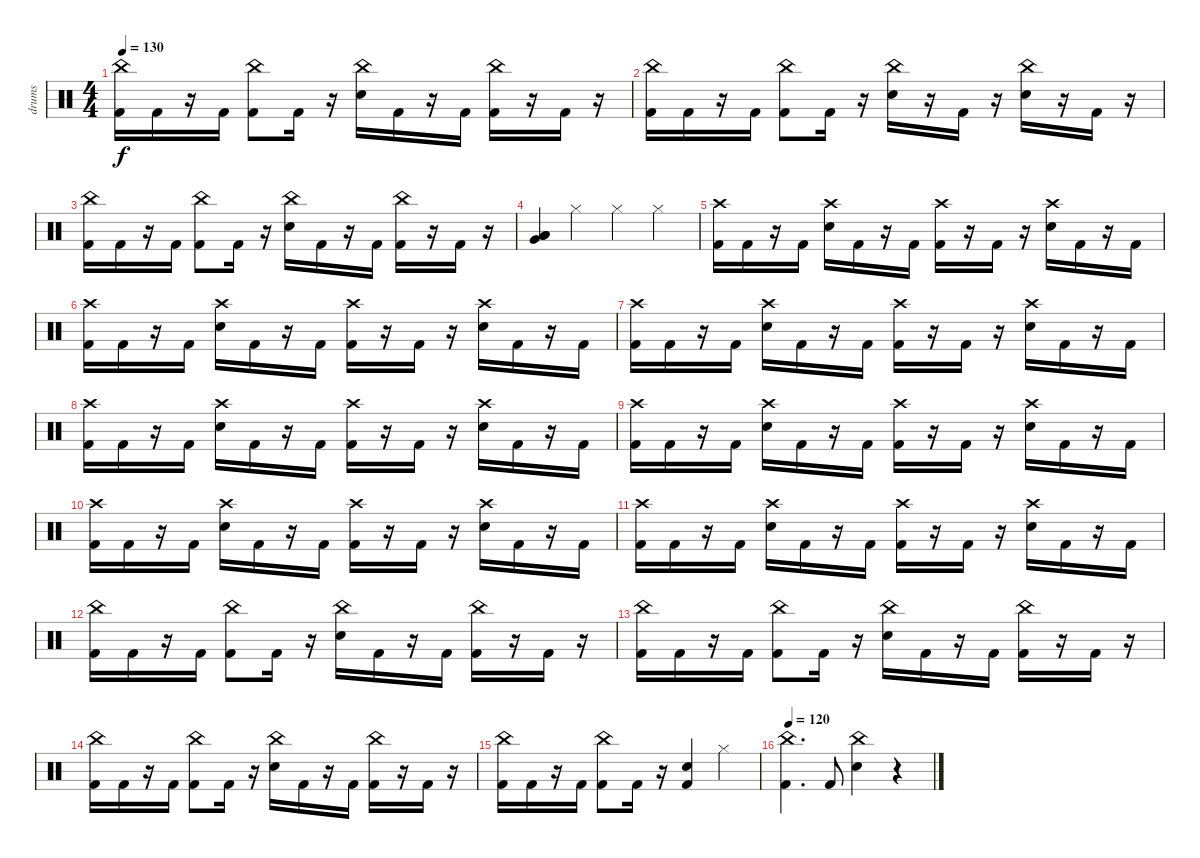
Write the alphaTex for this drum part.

\track ("drums" "drums") {instrument percussion}
\staff {score}
\articulation defaults
\ts (4 4)
\tempo 130
\clef neutral
\ks c
("China (hit)" "Kick (hit) 2").16{dy f} "Kick (hit) 2".16 r.16 "Kick (hit) 2".16 ("China (hit)" "Kick (hit) 2").8 "Kick (hit) 2".16 r.16 ("China (hit)" "Electric Snare (hit)").16 "Kick (hit) 2".16 r.16 "Kick (hit) 2".16 ("China (hit)" "Kick (hit) 2").16 r.16 "Kick (hit) 2".16 r.16 |
("China (hit)" "Kick (hit) 2").16 "Kick (hit) 2".16 r.16 "Kick (hit) 2".16 ("China (hit)" "Kick (hit) 2").8 "Kick (hit) 2".16 r.16 ("China (hit)" "Electric Snare (hit)").16 r.16 "Kick (hit) 2".16 r.16 ("China (hit)" "Electric Snare (hit)").16 r.16 "Kick (hit) 2".16 r.16 |
("China (hit)" "Kick (hit) 2").16 "Kick (hit) 2".16 r.16 "Kick (hit) 2".16 ("China (hit)" "Kick (hit) 2").8 "Kick (hit) 2".16 r.16 ("China (hit)" "Electric Snare (hit)").16 "Kick (hit) 2".16 r.16 "Kick (hit) 2".16 ("China (hit)" "Kick (hit) 2").16 r.16 "Kick (hit) 2".16 r.16 |
("Low Tom (hit)" "Very Low Tom (hit)" "Low Floor Tom (hit)").4 "Hi-Hat (closed)".4 "Hi-Hat (closed)".4 "Hi-Hat (closed)".4 |
("Crash high (hit)" "Kick (hit) 2").16 "Kick (hit) 2".16 r.16 "Kick (hit) 2".16 ("Crash high (hit)" "Electric Snare (hit)").16 "Kick (hit) 2".16 r.16 "Kick (hit) 2".16 ("Crash high (hit)" "Kick (hit) 2").16 r.16 "Kick (hit) 2".16 r.16 ("Crash high (hit)" "Electric Snare (hit)").16 "Kick (hit) 2".16 r.16 "Kick (hit) 2".16 |
("Crash high (hit)" "Kick (hit) 2").16 "Kick (hit) 2".16 r.16 "Kick (hit) 2".16 ("Crash high (hit)" "Electric Snare (hit)").16 "Kick (hit) 2".16 r.16 "Kick (hit) 2".16 ("Crash high (hit)" "Kick (hit) 2").16 r.16 "Kick (hit) 2".16 r.16 ("Crash high (hit)" "Electric Snare (hit)").16 "Kick (hit) 2".16 r.16 "Kick (hit) 2".16 |
("Crash high (hit)" "Kick (hit) 2").16 "Kick (hit) 2".16 r.16 "Kick (hit) 2".16 ("Crash high (hit)" "Electric Snare (hit)").16 "Kick (hit) 2".16 r.16 "Kick (hit) 2".16 ("Crash high (hit)" "Kick (hit) 2").16 r.16 "Kick (hit) 2".16 r.16 ("Crash high (hit)" "Electric Snare (hit)").16 "Kick (hit) 2".16 r.16 "Kick (hit) 2".16 |
("Crash high (hit)" "Kick (hit) 2").16 "Kick (hit) 2".16 r.16 "Kick (hit) 2".16 ("Crash high (hit)" "Electric Snare (hit)").16 "Kick (hit) 2".16 r.16 "Kick (hit) 2".16 ("Crash high (hit)" "Kick (hit) 2").16 r.16 "Kick (hit) 2".16 r.16 ("Crash high (hit)" "Electric Snare (hit)").16 "Kick (hit) 2".16 r.16 "Kick (hit) 2".16 |
("Crash high (hit)" "Kick (hit) 2").16 "Kick (hit) 2".16 r.16 "Kick (hit) 2".16 ("Crash high (hit)" "Electric Snare (hit)").16 "Kick (hit) 2".16 r.16 "Kick (hit) 2".16 ("Crash high (hit)" "Kick (hit) 2").16 r.16 "Kick (hit) 2".16 r.16 ("Crash high (hit)" "Electric Snare (hit)").16 "Kick (hit) 2".16 r.16 "Kick (hit) 2".16 |
("Crash high (hit)" "Kick (hit) 2").16 "Kick (hit) 2".16 r.16 "Kick (hit) 2".16 ("Crash high (hit)" "Electric Snare (hit)").16 "Kick (hit) 2".16 r.16 "Kick (hit) 2".16 ("Crash high (hit)" "Kick (hit) 2").16 r.16 "Kick (hit) 2".16 r.16 ("Crash high (hit)" "Electric Snare (hit)").16 "Kick (hit) 2".16 r.16 "Kick (hit) 2".16 |
("Crash high (hit)" "Kick (hit) 2").16 "Kick (hit) 2".16 r.16 "Kick (hit) 2".16 ("Crash high (hit)" "Electric Snare (hit)").16 "Kick (hit) 2".16 r.16 "Kick (hit) 2".16 ("Crash high (hit)" "Kick (hit) 2").16 r.16 "Kick (hit) 2".16 r.16 ("Crash high (hit)" "Electric Snare (hit)").16 "Kick (hit) 2".16 r.16 "Kick (hit) 2".16 |
("China (hit)" "Kick (hit) 2").16 "Kick (hit) 2".16 r.16 "Kick (hit) 2".16 ("China (hit)" "Kick (hit) 2").8 "Kick (hit) 2".16 r.16 ("China (hit)" "Electric Snare (hit)").16 "Kick (hit) 2".16 r.16 "Kick (hit) 2".16 ("China (hit)" "Kick (hit) 2").16 r.16 "Kick (hit) 2".16 r.16 |
("China (hit)" "Kick (hit) 2").16 "Kick (hit) 2".16 r.16 "Kick (hit) 2".16 ("China (hit)" "Kick (hit) 2").8 "Kick (hit) 2".16 r.16 ("China (hit)" "Electric Snare (hit)").16 "Kick (hit) 2".16 r.16 "Kick (hit) 2".16 ("China (hit)" "Kick (hit) 2").16 r.16 "Kick (hit) 2".16 r.16 |
("China (hit)" "Kick (hit) 2").16 "Kick (hit) 2".16 r.16 "Kick (hit) 2".16 ("China (hit)" "Kick (hit) 2").8 "Kick (hit) 2".16 r.16 ("China (hit)" "Electric Snare (hit)").16 "Kick (hit) 2".16 r.16 "Kick (hit) 2".16 ("China (hit)" "Kick (hit) 2").16 r.16 "Kick (hit) 2".16 r.16 |
("China (hit)" "Kick (hit) 2").16 "Kick (hit) 2".16 r.16 "Kick (hit) 2".16 ("China (hit)" "Kick (hit) 2").8 "Kick (hit) 2".16 r.16 ("Electric Snare (hit)" "Kick (hit) 2").4 "Hi-Hat (closed)".4 |
\tempo 120
("China (hit)" "Kick (hit) 2").4{d} "Kick (hit) 2".8 ("China (hit)" "Electric Snare (hit)").4 r.4
